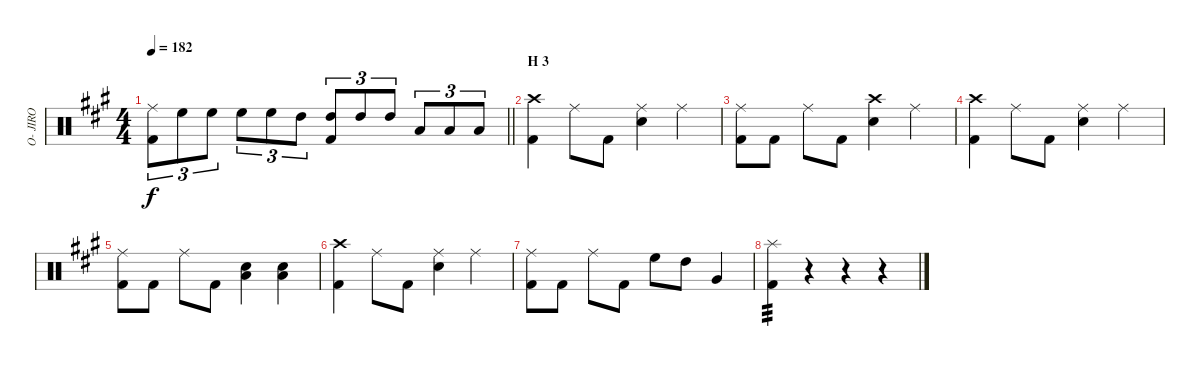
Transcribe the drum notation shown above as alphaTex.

\track ("O- JIRO" "O- JIRO") {instrument percussion}
\staff {score}
\articulation defaults
\ts (4 4)
\tempo 182
\clef neutral
\barLineRight lightlight
\ks a
("Ride (middle)" "Kick (hit) 2").8{tu (3 2) dy f} "High Floor Tom (hit)".8{tu (3 2)} "High Floor Tom (hit)".8{tu (3 2)} "High Floor Tom (hit)".8{tu (3 2)} "High Floor Tom (hit)".8{tu (3 2)} "High Tom (hit)".8{tu (3 2)} ("High Tom (hit)" "Kick (hit) 2").8{tu (3 2)} "High Tom (hit)".8{tu (3 2)} "High Tom (hit)".8{tu (3 2)} "Low Tom (hit)".8{tu (3 2)} "Low Tom (hit)".8{tu (3 2)} "Low Tom (hit)".8{tu (3 2)} |
\section ("" "H 3")
("Crash high (hit)" "Kick (hit) 2").4 "Ride (middle)".8 "Kick (hit) 2".8 ("Ride (middle)" "Snare (hit) 2").4 "Ride (middle)".4 |
("Ride (middle)" "Kick (hit) 2").8 "Kick (hit) 2".8 "Ride (middle)".8 "Kick (hit) 2".8 ("Crash high (hit)" "Snare (hit) 2").4 "Ride (middle)".4 |
("Crash high (hit)" "Kick (hit) 2").4 "Ride (middle)".8 "Kick (hit) 2".8 ("Ride (middle)" "Snare (hit) 2").4 "Ride (middle)".4 |
("Ride (middle)" "Kick (hit) 2").8 "Kick (hit) 2".8 "Ride (middle)".8 "Kick (hit) 2".8 ("Snare (hit) 2" "Low Tom (hit)").4 ("Snare (hit) 2" "Low Tom (hit)").4 |
("Crash high (hit)" "Kick (hit) 2").4 "Ride (middle)".8 "Kick (hit) 2".8 ("Ride (middle)" "Snare (hit) 2").4 "Ride (middle)".4 |
("Ride (middle)" "Kick (hit) 2").8 "Kick (hit) 2".8 "Ride (middle)".8 "Kick (hit) 2".8 "High Floor Tom (hit)".8 "High Tom (hit)".8 "Very Low Tom (hit)".4 |
("Splash (hit)" "Kick (hit) 2").4{tp 3} r.4 r.4 r.4
